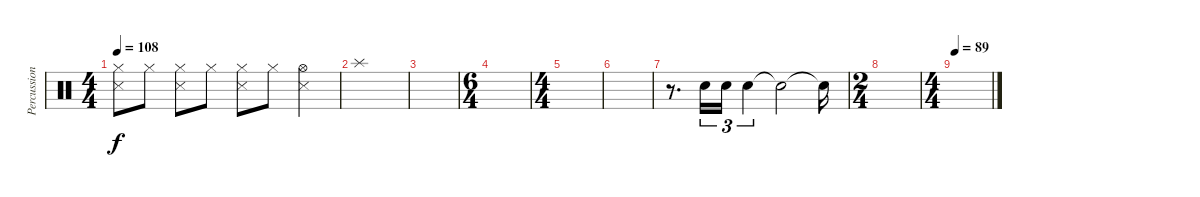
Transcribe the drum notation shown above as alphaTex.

\track ("Percussion" "Percussion") {instrument percussion}
\staff {score}
\articulation defaults
\ts (4 4)
\tempo 108
\clef neutral
\ks c
("Hi-Hat (closed)" "Snare (side stick) 3").8{dy f} "Hi-Hat (closed)".8 ("Hi-Hat (closed)" "Snare (side stick) 3").8 "Hi-Hat (closed)".8 ("Hi-Hat (closed)" "Snare (side stick) 3").8 "Hi-Hat (closed)".8 ("Hi-Hat (open)" "Snare (side stick) 3").4 |
"Splash (hit)".1 |
|
\ts (6 4)
|
\ts (4 4)
|
|
r.8{d} "Snare (hit) 2".16{tu (3 2)} "Snare (hit) 2".16{tu (3 2)} "Snare (hit) 2".4{tu (3 2)} "Snare (hit) 2"{t}.2 "Snare (hit) 2"{t}.16 |
\ts (2 4)
|
\ts (4 4)
\tempo 89
